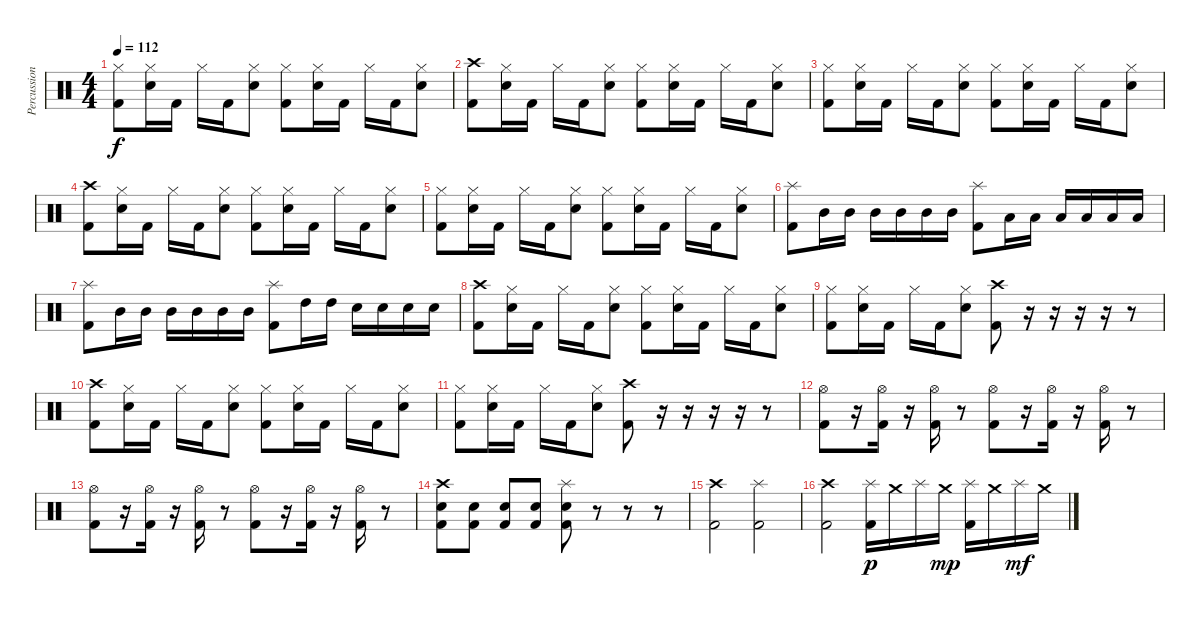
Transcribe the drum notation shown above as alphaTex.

\track ("Percussion" "Percussion") {instrument percussion}
\staff {score}
\articulation defaults
\ts (4 4)
\tempo 112
\clef neutral
\ks c
("Hi-Hat (closed)" "Kick (hit) 2").8{dy f} ("Hi-Hat (closed)" "Snare (hit) 2").16 "Kick (hit) 2".16 "Hi-Hat (closed)".16 "Kick (hit) 2".16 ("Hi-Hat (closed)" "Snare (hit) 2").8 ("Hi-Hat (closed)" "Kick (hit) 2").8 ("Hi-Hat (closed)" "Snare (hit) 2").16 "Kick (hit) 2".16 "Hi-Hat (closed)".16 "Kick (hit) 2".16 ("Hi-Hat (closed)" "Snare (hit) 2").8 |
("Crash high (hit)" "Kick (hit) 2").8 ("Hi-Hat (closed)" "Snare (hit) 2").16 "Kick (hit) 2".16 "Hi-Hat (closed)".16 "Kick (hit) 2".16 ("Hi-Hat (closed)" "Snare (hit) 2").8 ("Hi-Hat (closed)" "Kick (hit) 2").8 ("Hi-Hat (closed)" "Snare (hit) 2").16 "Kick (hit) 2".16 "Hi-Hat (closed)".16 "Kick (hit) 2".16 ("Hi-Hat (closed)" "Snare (hit) 2").8 |
("Hi-Hat (closed)" "Kick (hit) 2").8 ("Hi-Hat (closed)" "Snare (hit) 2").16 "Kick (hit) 2".16 "Hi-Hat (closed)".16 "Kick (hit) 2".16 ("Hi-Hat (closed)" "Snare (hit) 2").8 ("Hi-Hat (closed)" "Kick (hit) 2").8 ("Hi-Hat (closed)" "Snare (hit) 2").16 "Kick (hit) 2".16 "Hi-Hat (closed)".16 "Kick (hit) 2".16 ("Hi-Hat (closed)" "Snare (hit) 2").8 |
("Crash high (hit)" "Kick (hit) 2").8 ("Hi-Hat (closed)" "Snare (hit) 2").16 "Kick (hit) 2".16 "Hi-Hat (closed)".16 "Kick (hit) 2".16 ("Hi-Hat (closed)" "Snare (hit) 2").8 ("Hi-Hat (closed)" "Kick (hit) 2").8 ("Hi-Hat (closed)" "Snare (hit) 2").16 "Kick (hit) 2".16 "Hi-Hat (closed)".16 "Kick (hit) 2".16 ("Hi-Hat (closed)" "Snare (hit) 2").8 |
("Hi-Hat (closed)" "Kick (hit) 2").8 ("Hi-Hat (closed)" "Snare (hit) 2").16 "Kick (hit) 2".16 "Hi-Hat (closed)".16 "Kick (hit) 2".16 ("Hi-Hat (closed)" "Snare (hit) 2").8 ("Hi-Hat (closed)" "Kick (hit) 2").8 ("Hi-Hat (closed)" "Snare (hit) 2").16 "Kick (hit) 2".16 "Hi-Hat (closed)".16 "Kick (hit) 2".16 ("Hi-Hat (closed)" "Snare (hit) 2").8 |
("Splash (hit)" "Kick (hit) 2").8 "Mid Tom (hit)".16 "Mid Tom (hit)".16 "Mid Tom (hit)".16 "Mid Tom (hit)".16 "Mid Tom (hit)".16 "Mid Tom (hit)".16 ("Splash (hit)" "Kick (hit) 2").8 "Low Tom (hit)".16 "Low Tom (hit)".16 "Low Tom (hit)".16 "Low Tom (hit)".16 "Low Tom (hit)".16 "Low Tom (hit)".16 |
("Splash (hit)" "Kick (hit) 2").8 "Mid Tom (hit)".16 "Mid Tom (hit)".16 "Mid Tom (hit)".16 "Mid Tom (hit)".16 "Mid Tom (hit)".16 "Mid Tom (hit)".16 ("Splash (hit)" "Kick (hit) 2").8 "High Tom (hit)".16 "High Tom (hit)".16 "Snare (hit) 2".16 "Snare (hit) 2".16 "Snare (hit) 2".16 "Snare (hit) 2".16 |
("Crash high (hit)" "Kick (hit) 2").8 ("Hi-Hat (closed)" "Snare (hit) 2").16 "Kick (hit) 2".16 "Hi-Hat (closed)".16 "Kick (hit) 2".16 ("Hi-Hat (closed)" "Snare (hit) 2").8 ("Hi-Hat (closed)" "Kick (hit) 2").8 ("Hi-Hat (closed)" "Snare (hit) 2").16 "Kick (hit) 2".16 "Hi-Hat (closed)".16 "Kick (hit) 2".16 ("Hi-Hat (closed)" "Snare (hit) 2").8 |
("Hi-Hat (closed)" "Kick (hit) 2").8 ("Hi-Hat (closed)" "Snare (hit) 2").16 "Kick (hit) 2".16 "Hi-Hat (closed)".16 "Kick (hit) 2".16 ("Hi-Hat (closed)" "Snare (hit) 2").8 ("Crash high (hit)" "Kick (hit) 2").8 r.16 r.16 r.16 r.16 r.8 |
("Crash high (hit)" "Kick (hit) 2").8 ("Hi-Hat (closed)" "Snare (hit) 2").16 "Kick (hit) 2".16 "Hi-Hat (closed)".16 "Kick (hit) 2".16 ("Hi-Hat (closed)" "Snare (hit) 2").8 ("Hi-Hat (closed)" "Kick (hit) 2").8 ("Hi-Hat (closed)" "Snare (hit) 2").16 "Kick (hit) 2".16 "Hi-Hat (closed)".16 "Kick (hit) 2".16 ("Hi-Hat (closed)" "Snare (hit) 2").8 |
("Hi-Hat (closed)" "Kick (hit) 2").8 ("Hi-Hat (closed)" "Snare (hit) 2").16 "Kick (hit) 2".16 "Hi-Hat (closed)".16 "Kick (hit) 2".16 ("Hi-Hat (closed)" "Snare (hit) 2").8 ("Crash high (hit)" "Kick (hit) 2").8 r.16 r.16 r.16 r.16 r.8 |
("Hi-Hat (open)" "Kick (hit) 2").8 r.16 ("Hi-Hat (open)" "Kick (hit) 2").16 r.16 ("Hi-Hat (open)" "Kick (hit) 2").16 r.8 ("Hi-Hat (open)" "Kick (hit) 2").8 r.16 ("Hi-Hat (open)" "Kick (hit) 2").16 r.16 ("Hi-Hat (open)" "Kick (hit) 2").16 r.8 |
("Hi-Hat (open)" "Kick (hit) 2").8 r.16 ("Hi-Hat (open)" "Kick (hit) 2").16 r.16 ("Hi-Hat (open)" "Kick (hit) 2").16 r.8 ("Hi-Hat (open)" "Kick (hit) 2").8 r.16 ("Hi-Hat (open)" "Kick (hit) 2").16 r.16 ("Hi-Hat (open)" "Kick (hit) 2").16 r.8 |
("Crash high (hit)" "Snare (hit) 2" "Kick (hit) 2").8 ("Snare (hit) 2" "Kick (hit) 2").8 ("Snare (hit) 2" "Kick (hit) 2").8 ("Snare (hit) 2" "Kick (hit) 2").8 ("Splash (hit)" "Snare (hit) 2" "Kick (hit) 2").8 r.8 r.8 r.8 |
("Crash high (hit)" "Kick (hit) 2").2 ("Splash (hit)" "Kick (hit) 2").2 |
("Crash high (hit)" "Kick (hit) 2").2 ("Splash (hit)" "Kick (hit) 2").16{dy p} "Crash medium (hit)".16 "Splash (hit)".16 "Crash medium (hit)".16{dy mp} ("Splash (hit)" "Kick (hit) 2").16 "Crash medium (hit)".16 "Splash (hit)".16{dy mf} "Crash medium (hit)".16
